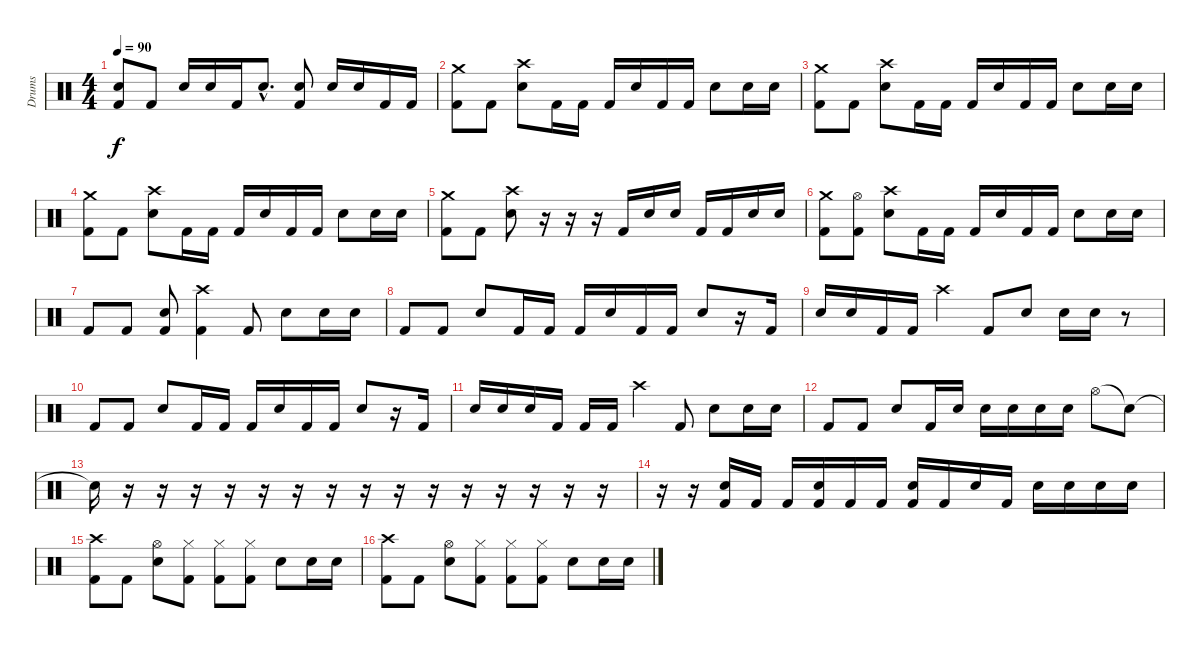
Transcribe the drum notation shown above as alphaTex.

\track ("Drums" "Drums") {instrument percussion}
\staff {score}
\articulation defaults
\ts (4 4)
\tempo 90
\clef neutral
\ks c
("Snare (hit) 2" "Kick (hit) 2").8{dy f} "Kick (hit) 2".8 "Snare (hit) 2".16 "Snare (hit) 2".16 "Kick (hit) 2".16 "Snare (hit) 2"{hac}.8{d} ("Snare (hit) 2" "Kick (hit) 2").8 "Snare (hit) 2".16 "Snare (hit) 2".16 "Kick (hit) 2".16 "Kick (hit) 2".16 |
("Crash medium (hit)" "Kick (hit) 2").8 "Kick (hit) 2".8 ("Snare (hit) 2" "Crash high (hit)").8 "Kick (hit) 2".16 "Kick (hit) 2".16 "Kick (hit) 2".16 "Snare (hit) 2".16 "Kick (hit) 2".16 "Kick (hit) 2".16 "Snare (hit) 2".8 "Snare (hit) 2".16 "Snare (hit) 2".16 |
("Crash medium (hit)" "Kick (hit) 2").8 "Kick (hit) 2".8 ("Snare (hit) 2" "Crash high (hit)").8 "Kick (hit) 2".16 "Kick (hit) 2".16 "Kick (hit) 2".16 "Snare (hit) 2".16 "Kick (hit) 2".16 "Kick (hit) 2".16 "Snare (hit) 2".8 "Snare (hit) 2".16 "Snare (hit) 2".16 |
("Crash medium (hit)" "Kick (hit) 2").8 "Kick (hit) 2".8 ("Snare (hit) 2" "Crash high (hit)").8 "Kick (hit) 2".16 "Kick (hit) 2".16 "Kick (hit) 2".16 "Snare (hit) 2".16 "Kick (hit) 2".16 "Kick (hit) 2".16 "Snare (hit) 2".8 "Snare (hit) 2".16 "Snare (hit) 2".16 |
("Crash medium (hit)" "Kick (hit) 2").8 "Kick (hit) 2".8 ("Snare (hit) 2" "Crash high (hit)").8 r.16 r.16 r.16 "Kick (hit) 2".16 "Snare (hit) 2".16 "Snare (hit) 2".16 "Kick (hit) 2".16 "Kick (hit) 2".16 "Snare (hit) 2".16 "Snare (hit) 2".16 |
("Crash medium (hit)" "Kick (hit) 2").8 ("Hi-Hat (open)" "Kick (hit) 2").8 ("Snare (hit) 2" "Crash high (hit)").8 "Kick (hit) 2".16 "Kick (hit) 2".16 "Kick (hit) 2".16 "Snare (hit) 2".16 "Kick (hit) 2".16 "Kick (hit) 2".16 "Snare (hit) 2".8 "Snare (hit) 2".16 "Snare (hit) 2".16 |
"Kick (hit) 2".8 "Kick (hit) 2".8 ("Snare (hit) 2" "Kick (hit) 2").8 ("Crash high (hit)" "Kick (hit) 2").4 "Kick (hit) 2".8 "Snare (hit) 2".8 "Snare (hit) 2".16 "Snare (hit) 2".16 |
"Kick (hit) 2".8 "Kick (hit) 2".8 "Snare (hit) 2".8 "Kick (hit) 2".16 "Kick (hit) 2".16 "Kick (hit) 2".16 "Snare (hit) 2".16 "Kick (hit) 2".16 "Kick (hit) 2".16 "Snare (hit) 2".8 r.16 "Kick (hit) 2".16 |
"Snare (hit) 2".16 "Snare (hit) 2".16 "Kick (hit) 2".16 "Kick (hit) 2".16 "Crash high (hit)".4 "Kick (hit) 2".8 "Snare (hit) 2".8 "Snare (hit) 2".16 "Snare (hit) 2".16 r.8 |
"Kick (hit) 2".8 "Kick (hit) 2".8 "Snare (hit) 2".8 "Kick (hit) 2".16 "Kick (hit) 2".16 "Kick (hit) 2".16 "Snare (hit) 2".16 "Kick (hit) 2".16 "Kick (hit) 2".16 "Snare (hit) 2".8 r.16 "Kick (hit) 2".16 |
"Snare (hit) 2".16 "Snare (hit) 2".16 "Snare (hit) 2".16 "Kick (hit) 2".16 "Kick (hit) 2".16 "Kick (hit) 2".16 "Crash high (hit)".4 "Kick (hit) 2".8 "Snare (hit) 2".8 "Snare (hit) 2".16 "Snare (hit) 2".16 |
"Kick (hit) 2".8 "Kick (hit) 2".8 "Snare (hit) 2".8 "Kick (hit) 2".16 "Snare (hit) 2".16 "Snare (hit) 2".16 "Snare (hit) 2".16 "Snare (hit) 2".16 "Snare (hit) 2".16 "Hi-Hat (open)".8 "Snare (hit)"{t}.8 |
"Snare (hit) 2"{t}.16 r.16 r.16 r.16 r.16 r.16 r.16 r.16 r.16 r.16 r.16 r.16 r.16 r.16 r.16 r.16 |
r.16 r.16 ("Snare (hit) 2" "Kick (hit) 2").16 "Kick (hit) 2".16 "Kick (hit) 2".16 ("Snare (hit) 2" "Kick (hit) 2").16 "Kick (hit) 2".16 "Kick (hit) 2".16 ("Snare (hit) 2" "Kick (hit) 2").16 "Kick (hit) 2".16 "Snare (hit) 2".16 "Kick (hit) 2".16 "Snare (hit) 2".16 "Snare (hit) 2".16 "Snare (hit) 2".16 "Snare (hit) 2".16 |
("Crash high (hit)" "Kick (hit) 2").8 "Kick (hit) 2".8 ("Hi-Hat (open)" "Snare (hit) 2").8 ("Kick (hit) 2" "Hi-Hat (closed)").8 ("Kick (hit) 2" "Hi-Hat (closed)").8 ("Kick (hit) 2" "Hi-Hat (closed)").8 "Snare (hit) 2".8 "Snare (hit) 2".16 "Snare (hit) 2".16 |
("Crash high (hit)" "Kick (hit) 2").8 "Kick (hit) 2".8 ("Hi-Hat (open)" "Snare (hit) 2").8 ("Kick (hit) 2" "Hi-Hat (closed)").8 ("Kick (hit) 2" "Hi-Hat (closed)").8 ("Kick (hit) 2" "Hi-Hat (closed)").8 "Snare (hit) 2".8 "Snare (hit) 2".16 "Snare (hit) 2".16
